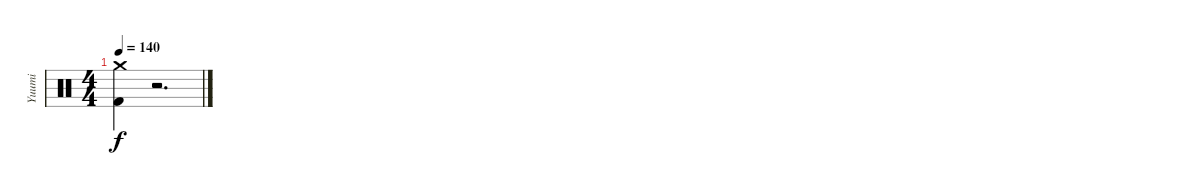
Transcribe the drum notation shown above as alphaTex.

\track ("Yuumi" "Yuumi") {instrument percussion}
\staff {score}
\articulation defaults
\ts (4 4)
\tempo 140
\clef neutral
\ks c
("Crash medium (hit)" "Kick (hit) 2").4{dy f} r.2{d}
